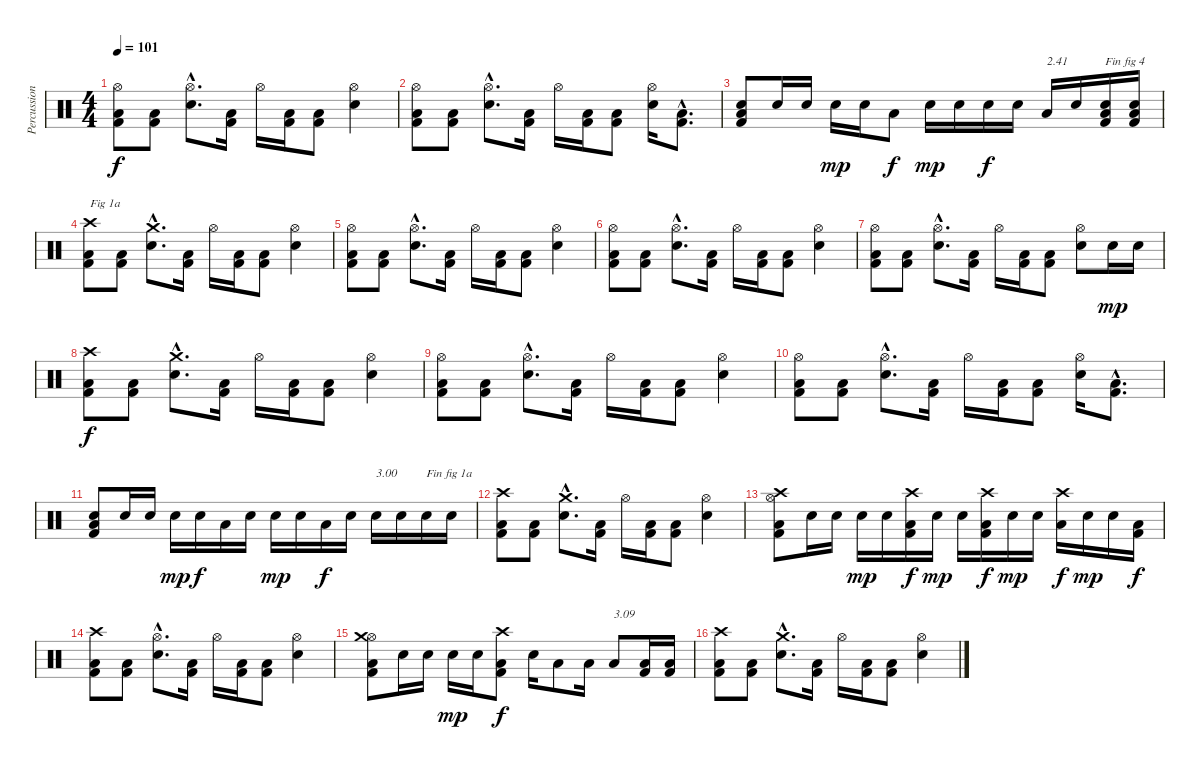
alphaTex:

\track ("Percussion" "Percussion") {instrument percussion}
\staff {score}
\articulation defaults
\ts (4 4)
\tempo 101
\clef neutral
\ks c
("Kick (hit) 2" "Low Floor Tom (hit)" "Hi-Hat (open)").8{dy f} ("Kick (hit) 2" "Low Floor Tom (hit)").8 ("Snare (hit) 2"{hac} "Hi-Hat (open)"{hac}).8{d} ("Kick (hit) 2" "Low Floor Tom (hit)").16 "Hi-Hat (open)".16 ("Kick (hit) 2" "Low Floor Tom (hit)").16 ("Kick (hit) 2" "Low Floor Tom (hit)").8 ("Snare (hit) 2" "Hi-Hat (open)").4 |
("Kick (hit) 2" "Low Floor Tom (hit)" "Hi-Hat (open)").8 ("Kick (hit) 2" "Low Floor Tom (hit)").8 ("Snare (hit) 2"{hac} "Hi-Hat (open)"{hac}).8{d} ("Kick (hit) 2" "Low Floor Tom (hit)").16 "Hi-Hat (open)".16 ("Kick (hit) 2" "Low Floor Tom (hit)").16 ("Kick (hit) 2" "Low Floor Tom (hit)").8 ("Snare (hit) 2" "Hi-Hat (open)").16 ("Kick (hit) 2"{hac} "Low Floor Tom (hit)"{hac}).8{d} |
("Kick (hit) 2" "Low Floor Tom (hit)" "Snare (hit) 2").8 "Snare (hit) 2".16 "Snare (hit) 2".16 "Snare (hit) 2".16{dy mp} "Snare (hit) 2".16 "Low Tom (hit)".8{dy f} "Snare (hit) 2".16{dy mp} "Snare (hit) 2".16 "Snare (hit) 2".16{dy f} "Snare (hit) 2".16 "Low Tom (hit)".16{txt "2.41"} "Snare (hit) 2".16 ("Kick (hit) 2" "Low Floor Tom (hit)" "Snare (hit) 2").16{txt "Fin fig 4"} ("Kick (hit) 2" "Low Floor Tom (hit)" "Snare (hit) 2").16 |
("Kick (hit) 2" "Low Floor Tom (hit)" "Crash high (hit)").8{txt "Fig 1a"} ("Kick (hit) 2" "Low Floor Tom (hit)").8 ("Snare (hit) 2"{hac} "Crash medium (hit)"{hac}).8{d} ("Kick (hit) 2" "Low Floor Tom (hit)").16 "Hi-Hat (open)".16 ("Kick (hit) 2" "Low Floor Tom (hit)").16 ("Kick (hit) 2" "Low Floor Tom (hit)").8 ("Snare (hit) 2" "Hi-Hat (open)").4 |
("Kick (hit) 2" "Low Floor Tom (hit)" "Hi-Hat (open)").8 ("Kick (hit) 2" "Low Floor Tom (hit)").8 ("Snare (hit) 2"{hac} "Hi-Hat (open)"{hac}).8{d} ("Kick (hit) 2" "Low Floor Tom (hit)").16 "Hi-Hat (open)".16 ("Kick (hit) 2" "Low Floor Tom (hit)").16 ("Kick (hit) 2" "Low Floor Tom (hit)").8 ("Snare (hit) 2" "Hi-Hat (open)").4 |
("Kick (hit) 2" "Low Floor Tom (hit)" "Hi-Hat (open)").8 ("Kick (hit) 2" "Low Floor Tom (hit)").8 ("Snare (hit) 2"{hac} "Hi-Hat (open)"{hac}).8{d} ("Kick (hit) 2" "Low Floor Tom (hit)").16 "Hi-Hat (open)".16 ("Kick (hit) 2" "Low Floor Tom (hit)").16 ("Kick (hit) 2" "Low Floor Tom (hit)").8 ("Snare (hit) 2" "Hi-Hat (open)").4 |
("Kick (hit) 2" "Low Floor Tom (hit)" "Hi-Hat (open)").8 ("Kick (hit) 2" "Low Floor Tom (hit)").8 ("Snare (hit) 2"{hac} "Hi-Hat (open)"{hac}).8{d} ("Kick (hit) 2" "Low Floor Tom (hit)").16 "Hi-Hat (open)".16 ("Kick (hit) 2" "Low Floor Tom (hit)").16 ("Kick (hit) 2" "Low Floor Tom (hit)").8 ("Snare (hit) 2" "Hi-Hat (open)").8 "Snare (hit) 2".16{dy mp} "Snare (hit) 2".16 |
("Kick (hit) 2" "Low Floor Tom (hit)" "Crash high (hit)").8{dy f} ("Kick (hit) 2" "Low Floor Tom (hit)").8 ("Snare (hit) 2"{hac} "Crash medium (hit)"{hac}).8{d} ("Kick (hit) 2" "Low Floor Tom (hit)").16 "Hi-Hat (open)".16 ("Kick (hit) 2" "Low Floor Tom (hit)").16 ("Kick (hit) 2" "Low Floor Tom (hit)").8 ("Snare (hit) 2" "Hi-Hat (open)").4 |
("Kick (hit) 2" "Low Floor Tom (hit)" "Hi-Hat (open)").8 ("Kick (hit) 2" "Low Floor Tom (hit)").8 ("Snare (hit) 2"{hac} "Hi-Hat (open)"{hac}).8{d} ("Kick (hit) 2" "Low Floor Tom (hit)").16 "Hi-Hat (open)".16 ("Kick (hit) 2" "Low Floor Tom (hit)").16 ("Kick (hit) 2" "Low Floor Tom (hit)").8 ("Snare (hit) 2" "Hi-Hat (open)").4 |
("Kick (hit) 2" "Low Floor Tom (hit)" "Hi-Hat (open)").8 ("Kick (hit) 2" "Low Floor Tom (hit)").8 ("Snare (hit) 2"{hac} "Hi-Hat (open)"{hac}).8{d} ("Kick (hit) 2" "Low Floor Tom (hit)").16 "Hi-Hat (open)".16 ("Kick (hit) 2" "Low Floor Tom (hit)").16 ("Kick (hit) 2" "Low Floor Tom (hit)").8 ("Snare (hit) 2" "Hi-Hat (open)").16 ("Kick (hit) 2"{hac} "Low Floor Tom (hit)"{hac}).8{d} |
("Kick (hit) 2" "Low Floor Tom (hit)" "Snare (hit) 2").8 "Snare (hit) 2".16 "Snare (hit) 2".16 "Snare (hit) 2".16{dy mp} "Snare (hit) 2".16{dy f} "Low Tom (hit)".16 "Snare (hit) 2".16 "Snare (hit) 2".16{dy mp} "Snare (hit) 2".16 "Low Tom (hit)".16{dy f} "Snare (hit) 2".16 "Snare (hit) 2".16{txt "3.00"} "Snare (hit) 2".16 "Snare (hit) 2".16{txt "Fin fig 1a"} "Snare (hit) 2".16 |
("Kick (hit) 2" "Low Floor Tom (hit)" "Crash high (hit)").8 ("Kick (hit) 2" "Low Floor Tom (hit)").8 ("Snare (hit) 2"{hac} "Crash medium (hit)"{hac}).8{d} ("Kick (hit) 2" "Low Floor Tom (hit)").16 "Hi-Hat (open)".16 ("Kick (hit) 2" "Low Floor Tom (hit)").16 ("Kick (hit) 2" "Low Floor Tom (hit)").8 ("Snare (hit) 2" "Hi-Hat (open)").4 |
("Kick (hit) 2" "Low Floor Tom (hit)" "Hi-Hat (open)" "Crash high (hit)").8 "Snare (hit) 2".16 "Snare (hit) 2".16 "Snare (hit) 2".16{dy mp} "Snare (hit) 2".16 ("Kick (hit) 2" "Low Floor Tom (hit)" "Crash high (hit)").16{dy f} "Snare (hit) 2".16{dy mp} "Snare (hit) 2".16 ("Kick (hit) 2" "Low Floor Tom (hit)" "Crash high (hit)").16{dy f} "Snare (hit) 2".16{dy mp} "Snare (hit) 2".16 ("Low Tom (hit)" "Crash high (hit)").16{dy f} "Snare (hit) 2".16{dy mp} "Snare (hit) 2".16 ("Kick (hit) 2" "Low Floor Tom (hit)").16{dy f} |
("Kick (hit) 2" "Low Floor Tom (hit)" "Crash high (hit)").8 ("Kick (hit) 2" "Low Floor Tom (hit)").8 ("Snare (hit) 2"{hac} "Hi-Hat (open)"{hac}).8{d} ("Kick (hit) 2" "Low Floor Tom (hit)").16 "Hi-Hat (open)".16 ("Kick (hit) 2" "Low Floor Tom (hit)").16 ("Kick (hit) 2" "Low Floor Tom (hit)").8 ("Snare (hit) 2" "Hi-Hat (open)").4 |
("Kick (hit) 2" "Low Floor Tom (hit)" "Hi-Hat (open)" "Crash medium (hit)").8 "Snare (hit) 2".16 "Snare (hit) 2".16 "Snare (hit) 2".16{dy mp} "Snare (hit) 2".16 ("Kick (hit) 2" "Low Floor Tom (hit)" "Crash high (hit)").8{dy f} "Snare (hit) 2".16 "Low Tom (hit)".8 "Low Tom (hit)".16 "Low Tom (hit)".8{txt "3.09"} ("Kick (hit) 2" "Low Floor Tom (hit)").16 ("Kick (hit) 2" "Low Floor Tom (hit)").16 |
("Kick (hit) 2" "Low Floor Tom (hit)" "Crash high (hit)").8 ("Kick (hit) 2" "Low Floor Tom (hit)").8 ("Snare (hit) 2"{hac} "Crash medium (hit)"{hac}).8{d} ("Kick (hit) 2" "Low Floor Tom (hit)").16 "Hi-Hat (open)".16 ("Kick (hit) 2" "Low Floor Tom (hit)").16 ("Kick (hit) 2" "Low Floor Tom (hit)").8 ("Snare (hit) 2" "Hi-Hat (open)").4
